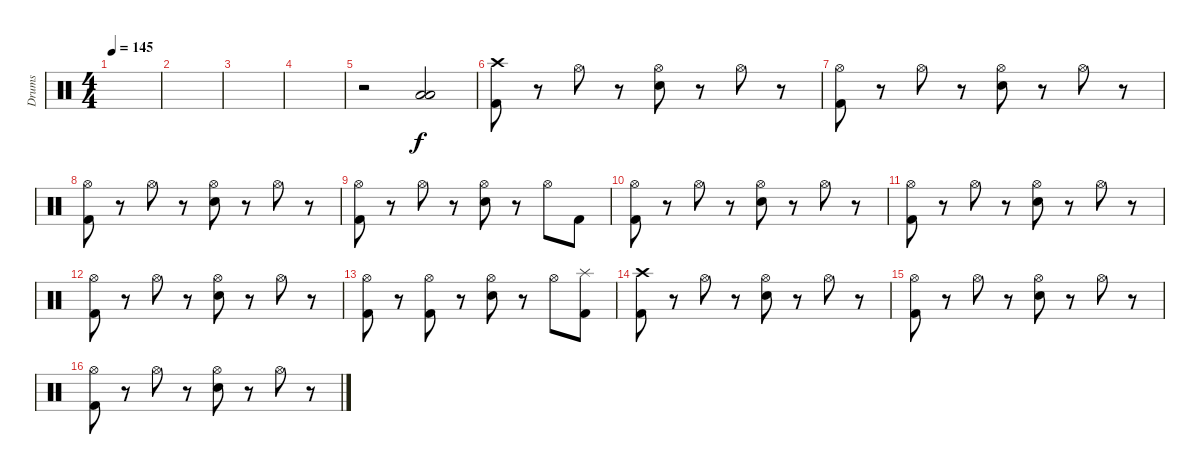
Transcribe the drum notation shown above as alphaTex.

\track ("Drums" "Drums") {instrument percussion}
\staff {score}
\articulation defaults
\ts (4 4)
\tempo 145
\clef neutral
\ks c
|
|
|
|
r.2 ("Low Floor Tom (hit)" "Low Floor Tom (hit)").2 |
("Crash high (hit)" "Kick (hit) 2").8 r.8 "Hi-Hat (open)".8 r.8 ("Hi-Hat (open)" "Electric Snare (hit)").8 r.8 "Hi-Hat (open)".8 r.8 |
("Hi-Hat (open)" "Kick (hit) 2").8 r.8 "Hi-Hat (open)".8 r.8 ("Hi-Hat (open)" "Electric Snare (hit)").8 r.8 "Hi-Hat (open)".8 r.8 |
("Hi-Hat (open)" "Kick (hit) 2").8 r.8 "Hi-Hat (open)".8 r.8 ("Hi-Hat (open)" "Electric Snare (hit)").8 r.8 "Hi-Hat (open)".8 r.8 |
("Hi-Hat (open)" "Kick (hit) 2").8 r.8 "Hi-Hat (open)".8 r.8 ("Hi-Hat (open)" "Electric Snare (hit)").8 r.8 "Hi-Hat (open)".8 "Kick (hit) 2".8 |
("Hi-Hat (open)" "Kick (hit) 2").8 r.8 "Hi-Hat (open)".8 r.8 ("Hi-Hat (open)" "Electric Snare (hit)").8 r.8 "Hi-Hat (open)".8 r.8 |
("Hi-Hat (open)" "Kick (hit) 2").8 r.8 "Hi-Hat (open)".8 r.8 ("Hi-Hat (open)" "Electric Snare (hit)").8 r.8 "Hi-Hat (open)".8 r.8 |
("Hi-Hat (open)" "Kick (hit) 2").8 r.8 "Hi-Hat (open)".8 r.8 ("Hi-Hat (open)" "Electric Snare (hit)").8 r.8 "Hi-Hat (open)".8 r.8 |
("Hi-Hat (open)" "Kick (hit) 2").8 r.8 ("Hi-Hat (open)" "Kick (hit) 2").8 r.8 ("Hi-Hat (open)" "Electric Snare (hit)").8 r.8 "Hi-Hat (open)".8 ("Splash (hit)" "Kick (hit) 2").8 |
("Crash high (hit)" "Kick (hit) 2").8 r.8 "Hi-Hat (open)".8 r.8 ("Hi-Hat (open)" "Electric Snare (hit)").8 r.8 "Hi-Hat (open)".8 r.8 |
("Hi-Hat (open)" "Kick (hit) 2").8 r.8 "Hi-Hat (open)".8 r.8 ("Hi-Hat (open)" "Electric Snare (hit)").8 r.8 "Hi-Hat (open)".8 r.8 |
("Hi-Hat (open)" "Kick (hit) 2").8 r.8 "Hi-Hat (open)".8 r.8 ("Hi-Hat (open)" "Electric Snare (hit)").8 r.8 "Hi-Hat (open)".8 r.8
